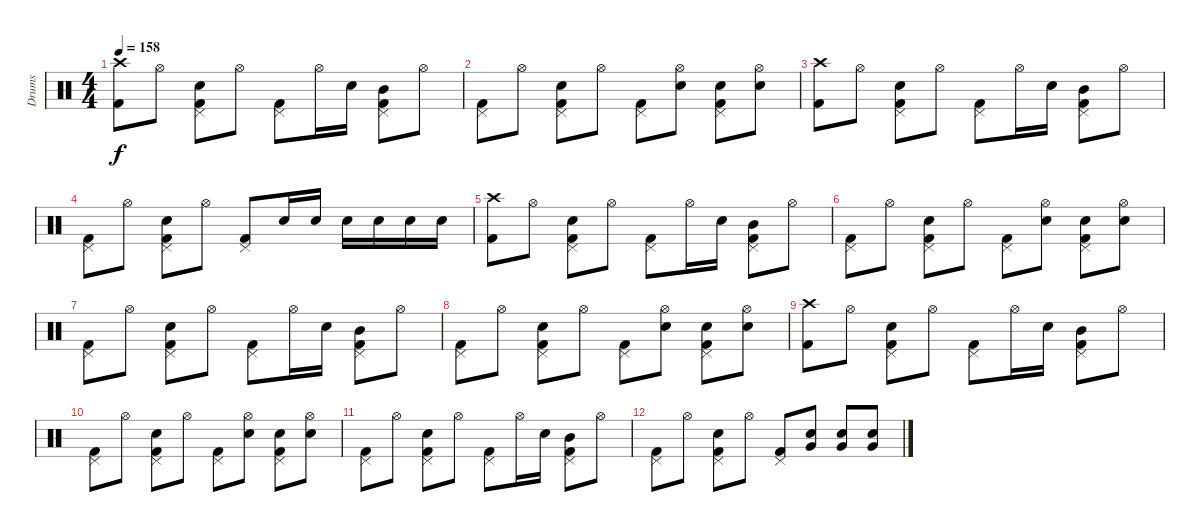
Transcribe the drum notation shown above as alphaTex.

\track ("Drums" "Drums") {instrument percussion}
\staff {score}
\articulation defaults
\ts (4 4)
\tempo 158
\clef neutral
\ks c
("Crash high (hit)" "Kick (hit) 2").8{dy f} "Hi-Hat (open)".8 ("Pedal Hi-Hat (hit)" "Electric Snare (hit)" "Kick (hit) 2").8 "Hi-Hat (open)".8 ("Pedal Hi-Hat (hit)" "Kick (hit) 2").8 "Hi-Hat (open)".16 "Electric Snare (hit)".16 ("Pedal Hi-Hat (hit)" "Mid Tom (hit)" "Kick (hit) 2").8 "Hi-Hat (open)".8 |
("Pedal Hi-Hat (hit)" "Kick (hit) 2").8 "Hi-Hat (open)".8 ("Pedal Hi-Hat (hit)" "Electric Snare (hit)" "Kick (hit) 2").8 "Hi-Hat (open)".8 ("Pedal Hi-Hat (hit)" "Kick (hit) 2").8 ("Hi-Hat (open)" "Electric Snare (hit)").8 ("Pedal Hi-Hat (hit)" "Electric Snare (hit)" "Kick (hit) 2").8 ("Hi-Hat (open)" "Electric Snare (hit)").8 |
("Crash high (hit)" "Kick (hit) 2").8 "Hi-Hat (open)".8 ("Pedal Hi-Hat (hit)" "Electric Snare (hit)" "Kick (hit) 2").8 "Hi-Hat (open)".8 ("Pedal Hi-Hat (hit)" "Kick (hit) 2").8 "Hi-Hat (open)".16 "Electric Snare (hit)".16 ("Pedal Hi-Hat (hit)" "Mid Tom (hit)" "Kick (hit) 2").8 "Hi-Hat (open)".8 |
("Pedal Hi-Hat (hit)" "Kick (hit) 2").8 "Hi-Hat (open)".8 ("Pedal Hi-Hat (hit)" "Electric Snare (hit)" "Kick (hit) 2").8 "Hi-Hat (open)".8 ("Pedal Hi-Hat (hit)" "Kick (hit) 2").8 "Electric Snare (hit)".16 "Electric Snare (hit)".16 "Electric Snare (hit)".16 "Electric Snare (hit)".16 "Electric Snare (hit)".16 "Electric Snare (hit)".16 |
("Crash high (hit)" "Kick (hit) 2").8 "Hi-Hat (open)".8 ("Pedal Hi-Hat (hit)" "Electric Snare (hit)" "Kick (hit) 2").8 "Hi-Hat (open)".8 ("Pedal Hi-Hat (hit)" "Kick (hit) 2").8 "Hi-Hat (open)".16 "Electric Snare (hit)".16 ("Pedal Hi-Hat (hit)" "Mid Tom (hit)" "Kick (hit) 2").8 "Hi-Hat (open)".8 |
("Pedal Hi-Hat (hit)" "Kick (hit) 2").8 "Hi-Hat (open)".8 ("Pedal Hi-Hat (hit)" "Electric Snare (hit)" "Kick (hit) 2").8 "Hi-Hat (open)".8 ("Pedal Hi-Hat (hit)" "Kick (hit) 2").8 ("Hi-Hat (open)" "Electric Snare (hit)").8 ("Pedal Hi-Hat (hit)" "Electric Snare (hit)" "Kick (hit) 2").8 ("Hi-Hat (open)" "Electric Snare (hit)").8 |
("Pedal Hi-Hat (hit)" "Kick (hit) 2").8 "Hi-Hat (open)".8 ("Pedal Hi-Hat (hit)" "Electric Snare (hit)" "Kick (hit) 2").8 "Hi-Hat (open)".8 ("Pedal Hi-Hat (hit)" "Kick (hit) 2").8 "Hi-Hat (open)".16 "Electric Snare (hit)".16 ("Pedal Hi-Hat (hit)" "Mid Tom (hit)" "Kick (hit) 2").8 "Hi-Hat (open)".8 |
("Pedal Hi-Hat (hit)" "Kick (hit) 2").8 "Hi-Hat (open)".8 ("Pedal Hi-Hat (hit)" "Electric Snare (hit)" "Kick (hit) 2").8 "Hi-Hat (open)".8 ("Pedal Hi-Hat (hit)" "Kick (hit) 2").8 ("Hi-Hat (open)" "Electric Snare (hit)").8 ("Pedal Hi-Hat (hit)" "Electric Snare (hit)" "Kick (hit) 2").8 ("Hi-Hat (open)" "Electric Snare (hit)").8 |
("Crash high (hit)" "Kick (hit) 2").8 "Hi-Hat (open)".8 ("Pedal Hi-Hat (hit)" "Electric Snare (hit)" "Kick (hit) 2").8 "Hi-Hat (open)".8 ("Pedal Hi-Hat (hit)" "Kick (hit) 2").8 "Hi-Hat (open)".16 "Electric Snare (hit)".16 ("Pedal Hi-Hat (hit)" "Mid Tom (hit)" "Kick (hit) 2").8 "Hi-Hat (open)".8 |
("Pedal Hi-Hat (hit)" "Kick (hit) 2").8 "Hi-Hat (open)".8 ("Pedal Hi-Hat (hit)" "Electric Snare (hit)" "Kick (hit) 2").8 "Hi-Hat (open)".8 ("Pedal Hi-Hat (hit)" "Kick (hit) 2").8 ("Hi-Hat (open)" "Electric Snare (hit)").8 ("Pedal Hi-Hat (hit)" "Electric Snare (hit)" "Kick (hit) 2").8 ("Hi-Hat (open)" "Electric Snare (hit)").8 |
("Pedal Hi-Hat (hit)" "Kick (hit) 2").8 "Hi-Hat (open)".8 ("Pedal Hi-Hat (hit)" "Electric Snare (hit)" "Kick (hit) 2").8 "Hi-Hat (open)".8 ("Pedal Hi-Hat (hit)" "Kick (hit) 2").8 "Hi-Hat (open)".16 "Electric Snare (hit)".16 ("Pedal Hi-Hat (hit)" "Mid Tom (hit)" "Kick (hit) 2").8 "Hi-Hat (open)".8 |
("Pedal Hi-Hat (hit)" "Kick (hit) 2").8 "Hi-Hat (open)".8 ("Pedal Hi-Hat (hit)" "Electric Snare (hit)" "Kick (hit) 2").8 "Hi-Hat (open)".8 ("Pedal Hi-Hat (hit)" "Kick (hit) 2").8 ("Electric Snare (hit)" "Very Low Tom (hit)").8 ("Electric Snare (hit)" "Very Low Tom (hit)").8 ("Electric Snare (hit)" "Very Low Tom (hit)").8
